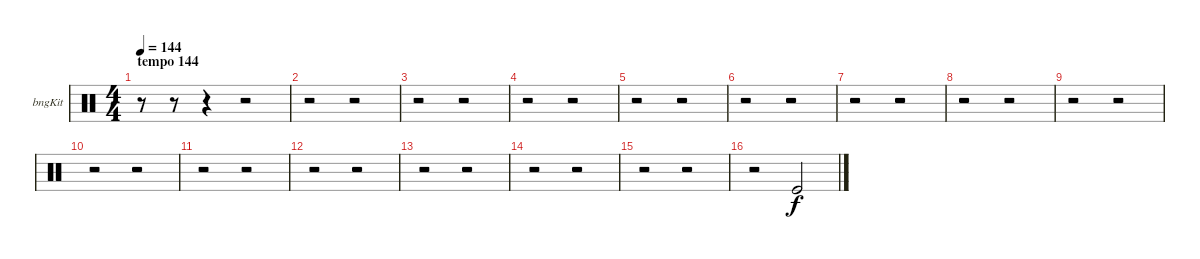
\bracketExtendMode groupsimilarinstruments
\firstSystemTrackNameOrientation horizontal
\otherSystemsTrackNameOrientation horizontal
\track ("Bongos" "bngKit") {instrument percussion}
\staff {score}
\articulation defaults
\ts (4 4)
\beaming (8 2 2 2 2)
\section ("" "tempo 144")
\tempo 144
\clef neutral
\ks c
r.8{dy f} r.8 r.4 r.2 |
r.2 r.2 |
r.2 r.2 |
r.2 r.2 |
r.2 r.2 |
r.2 r.2 |
r.2 r.2 |
r.2 r.2 |
r.2 r.2 |
r.2 r.2 |
r.2 r.2 |
r.2 r.2 |
r.2 r.2 |
r.2 r.2 |
r.2 r.2 |
r.2 "Kick (hit)".2
